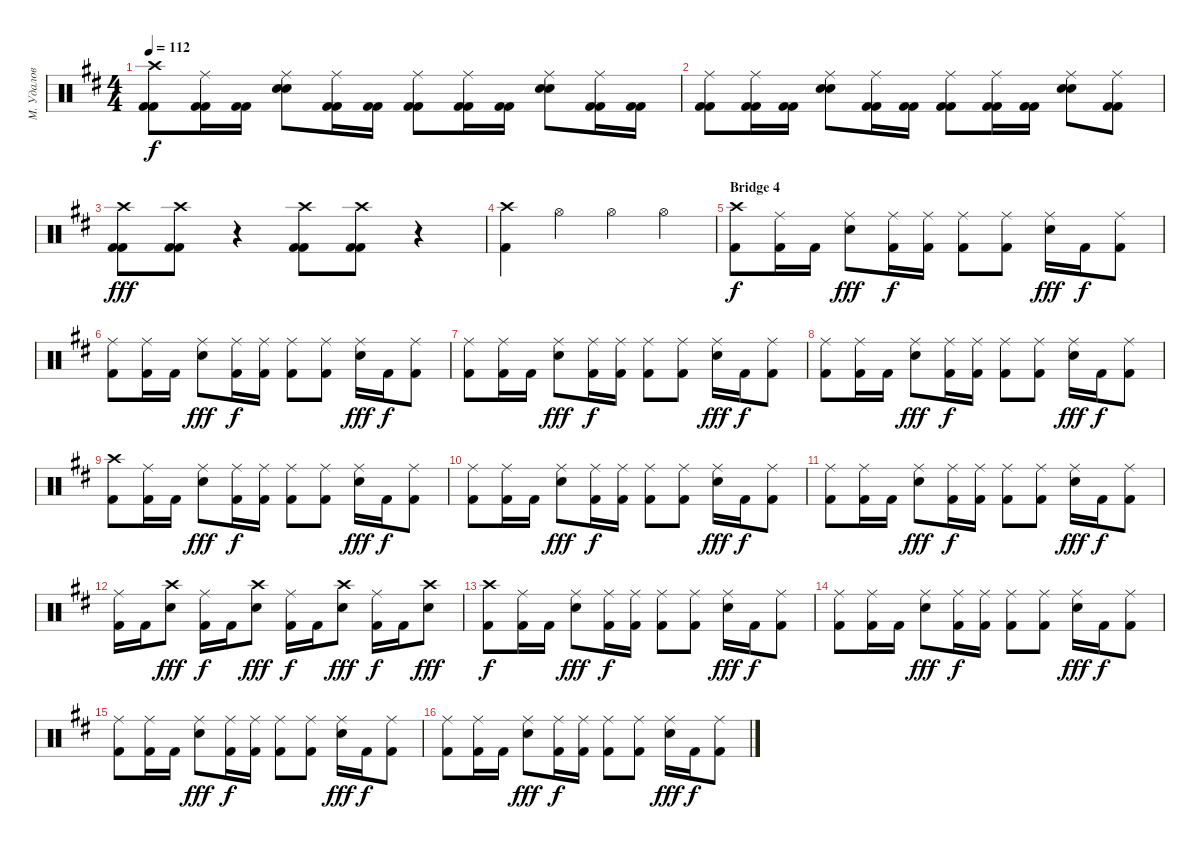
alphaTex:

\track ("М. Удалов" "М. Удалов") {instrument percussion}
\staff {score}
\articulation defaults
\ts (4 4)
\tempo 112
\clef neutral
\ks d
("Crash high (hit)" "Kick (hit) 2" "Kick (hit) 2").8{dy f} ("Ride (middle)" "Kick (hit) 2" "Kick (hit) 2").16 ("Kick (hit) 2" "Kick (hit) 2").16 ("Ride (middle)" "Electric Snare (hit)" "Electric Snare (hit)").8 ("Ride (middle)" "Kick (hit) 2" "Kick (hit) 2").16 ("Kick (hit) 2" "Kick (hit) 2").16 ("Ride (middle)" "Kick (hit) 2" "Kick (hit) 2").8 ("Ride (middle)" "Kick (hit) 2" "Kick (hit) 2").16 ("Kick (hit) 2" "Kick (hit) 2").16 ("Ride (middle)" "Electric Snare (hit)" "Electric Snare (hit)").8 ("Ride (middle)" "Kick (hit) 2" "Kick (hit) 2").16 ("Kick (hit) 2" "Kick (hit) 2").16 |
("Ride (middle)" "Kick (hit) 2" "Kick (hit) 2").8 ("Ride (middle)" "Kick (hit) 2" "Kick (hit) 2").16 ("Kick (hit) 2" "Kick (hit) 2").16 ("Ride (middle)" "Electric Snare (hit)" "Electric Snare (hit)").8 ("Ride (middle)" "Kick (hit) 2" "Kick (hit) 2").16 ("Kick (hit) 2" "Kick (hit) 2").16 ("Ride (middle)" "Kick (hit) 2" "Kick (hit) 2").8 ("Ride (middle)" "Kick (hit) 2" "Kick (hit) 2").16 ("Kick (hit) 2" "Kick (hit) 2").16 ("Ride (middle)" "Electric Snare (hit)" "Electric Snare (hit)").8 ("Ride (middle)" "Kick (hit) 2" "Kick (hit) 2").8 |
("Crash high (hit)" "Kick (hit) 2" "Kick (hit) 2").8{dy fff} ("Crash high (hit)" "Kick (hit) 2" "Kick (hit) 2").8 r.4 ("Crash high (hit)" "Kick (hit) 2" "Kick (hit) 2").8 ("Crash high (hit)" "Kick (hit) 2" "Kick (hit) 2").8 r.4 |
("Crash high (hit)" "Kick (hit) 2").4 "Hi-Hat (open)".4 "Hi-Hat (open)".4 "Hi-Hat (open)".4 |
\section ("" "Bridge 4")
("Crash high (hit)" "Kick (hit) 2").8{dy f} ("Ride (middle)" "Kick (hit) 2").16 "Kick (hit) 2".16 ("Ride (middle)" "Electric Snare (hit)").8{dy fff} ("Ride (middle)" "Kick (hit) 2").16{dy f} ("Ride (middle)" "Kick (hit) 2").16 ("Ride (middle)" "Kick (hit) 2").8 ("Ride (middle)" "Kick (hit) 2").8 ("Ride (middle)" "Electric Snare (hit)").16{dy fff} "Kick (hit) 2".16{dy f} ("Ride (middle)" "Kick (hit) 2").8 |
("Ride (middle)" "Kick (hit) 2").8 ("Ride (middle)" "Kick (hit) 2").16 "Kick (hit) 2".16 ("Ride (middle)" "Electric Snare (hit)").8{dy fff} ("Ride (middle)" "Kick (hit) 2").16{dy f} ("Ride (middle)" "Kick (hit) 2").16 ("Ride (middle)" "Kick (hit) 2").8 ("Ride (middle)" "Kick (hit) 2").8 ("Ride (middle)" "Electric Snare (hit)").16{dy fff} "Kick (hit) 2".16{dy f} ("Ride (middle)" "Kick (hit) 2").8 |
("Ride (middle)" "Kick (hit) 2").8 ("Ride (middle)" "Kick (hit) 2").16 "Kick (hit) 2".16 ("Ride (middle)" "Electric Snare (hit)").8{dy fff} ("Ride (middle)" "Kick (hit) 2").16{dy f} ("Ride (middle)" "Kick (hit) 2").16 ("Ride (middle)" "Kick (hit) 2").8 ("Ride (middle)" "Kick (hit) 2").8 ("Ride (middle)" "Electric Snare (hit)").16{dy fff} "Kick (hit) 2".16{dy f} ("Ride (middle)" "Kick (hit) 2").8 |
("Ride (middle)" "Kick (hit) 2").8 ("Ride (middle)" "Kick (hit) 2").16 "Kick (hit) 2".16 ("Ride (middle)" "Electric Snare (hit)").8{dy fff} ("Ride (middle)" "Kick (hit) 2").16{dy f} ("Ride (middle)" "Kick (hit) 2").16 ("Ride (middle)" "Kick (hit) 2").8 ("Ride (middle)" "Kick (hit) 2").8 ("Ride (middle)" "Electric Snare (hit)").16{dy fff} "Kick (hit) 2".16{dy f} ("Ride (middle)" "Kick (hit) 2").8 |
("Crash high (hit)" "Kick (hit) 2").8 ("Ride (middle)" "Kick (hit) 2").16 "Kick (hit) 2".16 ("Ride (middle)" "Electric Snare (hit)").8{dy fff} ("Ride (middle)" "Kick (hit) 2").16{dy f} ("Ride (middle)" "Kick (hit) 2").16 ("Ride (middle)" "Kick (hit) 2").8 ("Ride (middle)" "Kick (hit) 2").8 ("Ride (middle)" "Electric Snare (hit)").16{dy fff} "Kick (hit) 2".16{dy f} ("Ride (middle)" "Kick (hit) 2").8 |
("Ride (middle)" "Kick (hit) 2").8 ("Ride (middle)" "Kick (hit) 2").16 "Kick (hit) 2".16 ("Ride (middle)" "Electric Snare (hit)").8{dy fff} ("Ride (middle)" "Kick (hit) 2").16{dy f} ("Ride (middle)" "Kick (hit) 2").16 ("Ride (middle)" "Kick (hit) 2").8 ("Ride (middle)" "Kick (hit) 2").8 ("Ride (middle)" "Electric Snare (hit)").16{dy fff} "Kick (hit) 2".16{dy f} ("Ride (middle)" "Kick (hit) 2").8 |
("Ride (middle)" "Kick (hit) 2").8 ("Ride (middle)" "Kick (hit) 2").16 "Kick (hit) 2".16 ("Ride (middle)" "Electric Snare (hit)").8{dy fff} ("Ride (middle)" "Kick (hit) 2").16{dy f} ("Ride (middle)" "Kick (hit) 2").16 ("Ride (middle)" "Kick (hit) 2").8 ("Ride (middle)" "Kick (hit) 2").8 ("Ride (middle)" "Electric Snare (hit)").16{dy fff} "Kick (hit) 2".16{dy f} ("Ride (middle)" "Kick (hit) 2").8 |
("Ride (middle)" "Kick (hit) 2").16 "Kick (hit) 2".16 ("Crash high (hit)" "Electric Snare (hit)").8{dy fff} ("Ride (middle)" "Kick (hit) 2").16{dy f} "Kick (hit) 2".16 ("Crash high (hit)" "Electric Snare (hit)").8{dy fff} ("Ride (middle)" "Kick (hit) 2").16{dy f} "Kick (hit) 2".16 ("Crash high (hit)" "Electric Snare (hit)").8{dy fff} ("Ride (middle)" "Kick (hit) 2").16{dy f} "Kick (hit) 2".16 ("Crash high (hit)" "Electric Snare (hit)").8{dy fff} |
("Crash high (hit)" "Kick (hit) 2").8{dy f} ("Ride (middle)" "Kick (hit) 2").16 "Kick (hit) 2".16 ("Ride (middle)" "Electric Snare (hit)").8{dy fff} ("Ride (middle)" "Kick (hit) 2").16{dy f} ("Ride (middle)" "Kick (hit) 2").16 ("Ride (middle)" "Kick (hit) 2").8 ("Ride (middle)" "Kick (hit) 2").8 ("Ride (middle)" "Electric Snare (hit)").16{dy fff} "Kick (hit) 2".16{dy f} ("Ride (middle)" "Kick (hit) 2").8 |
("Ride (middle)" "Kick (hit) 2").8 ("Ride (middle)" "Kick (hit) 2").16 "Kick (hit) 2".16 ("Ride (middle)" "Electric Snare (hit)").8{dy fff} ("Ride (middle)" "Kick (hit) 2").16{dy f} ("Ride (middle)" "Kick (hit) 2").16 ("Ride (middle)" "Kick (hit) 2").8 ("Ride (middle)" "Kick (hit) 2").8 ("Ride (middle)" "Electric Snare (hit)").16{dy fff} "Kick (hit) 2".16{dy f} ("Ride (middle)" "Kick (hit) 2").8 |
("Ride (middle)" "Kick (hit) 2").8 ("Ride (middle)" "Kick (hit) 2").16 "Kick (hit) 2".16 ("Ride (middle)" "Electric Snare (hit)").8{dy fff} ("Ride (middle)" "Kick (hit) 2").16{dy f} ("Ride (middle)" "Kick (hit) 2").16 ("Ride (middle)" "Kick (hit) 2").8 ("Ride (middle)" "Kick (hit) 2").8 ("Ride (middle)" "Electric Snare (hit)").16{dy fff} "Kick (hit) 2".16{dy f} ("Ride (middle)" "Kick (hit) 2").8 |
("Ride (middle)" "Kick (hit) 2").8 ("Ride (middle)" "Kick (hit) 2").16 "Kick (hit) 2".16 ("Ride (middle)" "Electric Snare (hit)").8{dy fff} ("Ride (middle)" "Kick (hit) 2").16{dy f} ("Ride (middle)" "Kick (hit) 2").16 ("Ride (middle)" "Kick (hit) 2").8 ("Ride (middle)" "Kick (hit) 2").8 ("Ride (middle)" "Electric Snare (hit)").16{dy fff} "Kick (hit) 2".16{dy f} ("Ride (middle)" "Kick (hit) 2").8
